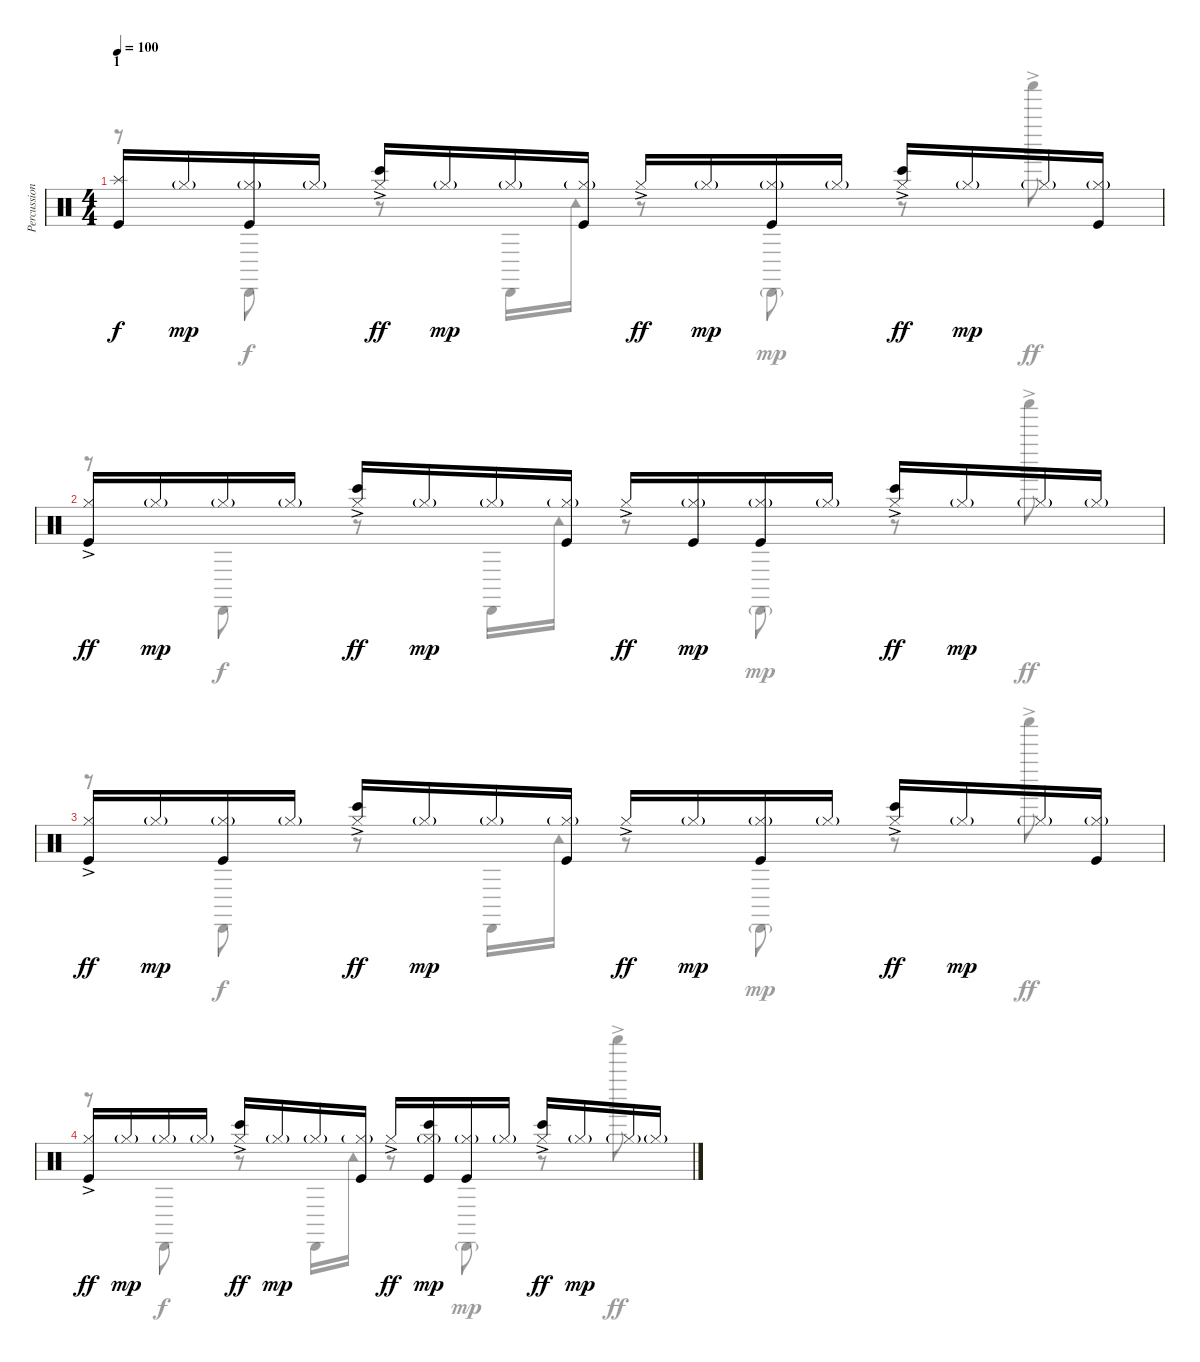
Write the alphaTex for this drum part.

\track ("Percussions" "Percussion") {instrument percussion}
\staff {score}
\articulation defaults
\voice
\ts (4 4)
\section ("" "1")
\tempo 100
\clef neutral
\ks c
("Kick (hit)" "Splash (hit)").16{dy f} "Hi-Hat (closed)"{g}.16{dy mp} ("Kick (hit)" "Hi-Hat (closed)"{g}).16 "Hi-Hat (closed)"{g}.16 ("Bongo High (hit)" "Hi-Hat (closed)"{ac}).16{dy ff} "Hi-Hat (closed)"{g}.16{dy mp} "Hi-Hat (closed)"{g}.16 ("Kick (hit)" "Hi-Hat (closed)"{g}).16 "Hi-Hat (closed)"{ac}.16{dy ff} "Hi-Hat (closed)"{g}.16{dy mp} ("Kick (hit)" "Hi-Hat (closed)"{g}).16 "Hi-Hat (closed)"{g}.16 ("Bongo High (hit)" "Hi-Hat (closed)"{ac}).16{dy ff} "Hi-Hat (closed)"{g}.16{dy mp} "Hi-Hat (closed)"{g}.16 ("Kick (hit)" "Hi-Hat (closed)"{g}).16 |
("Kick (hit)" "Hi-Hat (closed)"{ac}).16{dy ff} "Hi-Hat (closed)"{g}.16{dy mp} "Hi-Hat (closed)"{g}.16 "Hi-Hat (closed)"{g}.16 ("Bongo High (hit)" "Hi-Hat (closed)"{ac}).16{dy ff} "Hi-Hat (closed)"{g}.16{dy mp} "Hi-Hat (closed)"{g}.16 ("Kick (hit)" "Hi-Hat (closed)"{g}).16 "Hi-Hat (closed)"{ac}.16{dy ff} ("Kick (hit)" "Hi-Hat (closed)"{g}).16{dy mp} ("Kick (hit)" "Hi-Hat (closed)"{g}).16 "Hi-Hat (closed)"{g}.16 ("Bongo High (hit)" "Hi-Hat (closed)"{ac}).16{dy ff} "Hi-Hat (closed)"{g}.16{dy mp} "Hi-Hat (closed)"{g}.16 "Hi-Hat (closed)"{g}.16 |
("Kick (hit)" "Hi-Hat (closed)"{ac}).16{dy ff} "Hi-Hat (closed)"{g}.16{dy mp} ("Kick (hit)" "Hi-Hat (closed)"{g}).16 "Hi-Hat (closed)"{g}.16 ("Bongo High (hit)" "Hi-Hat (closed)"{ac}).16{dy ff} "Hi-Hat (closed)"{g}.16{dy mp} "Hi-Hat (closed)"{g}.16 ("Kick (hit)" "Hi-Hat (closed)"{g}).16 "Hi-Hat (closed)"{ac}.16{dy ff} "Hi-Hat (closed)"{g}.16{dy mp} ("Kick (hit)" "Hi-Hat (closed)"{g}).16 "Hi-Hat (closed)"{g}.16 ("Bongo High (hit)" "Hi-Hat (closed)"{ac}).16{dy ff} "Hi-Hat (closed)"{g}.16{dy mp} "Hi-Hat (closed)"{g}.16 ("Kick (hit)" "Hi-Hat (closed)"{g}).16 |
("Kick (hit)" "Hi-Hat (closed)"{ac}).16{dy ff} "Hi-Hat (closed)"{g}.16{dy mp} "Hi-Hat (closed)"{g}.16 "Hi-Hat (closed)"{g}.16 ("Bongo High (hit)" "Hi-Hat (closed)"{ac}).16{dy ff} "Hi-Hat (closed)"{g}.16{dy mp} "Hi-Hat (closed)"{g}.16 ("Kick (hit)" "Hi-Hat (closed)"{g}).16 "Hi-Hat (closed)"{ac}.16{dy ff} ("Kick (hit)" "Bongo High (hit)" "Hi-Hat (closed)"{g}).16{dy mp} ("Kick (hit)" "Hi-Hat (closed)"{g}).16 "Hi-Hat (closed)"{g}.16 ("Bongo High (hit)" "Hi-Hat (closed)"{ac}).16{dy ff} "Hi-Hat (closed)"{g}.16{dy mp} "Hi-Hat (closed)"{g}.16 "Hi-Hat (closed)"{g}.16
\voice
\clef neutral
\ottava regular
\simile none
\ks c
r.8{dy ff} "Cabasa (hit)".8{dy f} r.8 "Cabasa (hit)".16 "Tambourine (hit)".16 r.8 "Cabasa (hit)"{g}.8{dy mp} r.8 "Shaker (hit)"{ac}.8{dy ff} |
r.8 "Cabasa (hit)".8{dy f} r.8 "Cabasa (hit)".16 "Tambourine (hit)".16 r.8 "Cabasa (hit)"{g}.8{dy mp} r.8 "Shaker (hit)"{ac}.8{dy ff} |
r.8 "Cabasa (hit)".8{dy f} r.8 "Cabasa (hit)".16 "Tambourine (hit)".16 r.8 "Cabasa (hit)"{g}.8{dy mp} r.8 "Shaker (hit)"{ac}.8{dy ff} |
r.8 "Cabasa (hit)".8{dy f} r.8 "Cabasa (hit)".16 "Tambourine (hit)".16 r.8 "Cabasa (hit)"{g}.8{dy mp} r.8 "Shaker (hit)"{ac}.8{dy ff}
